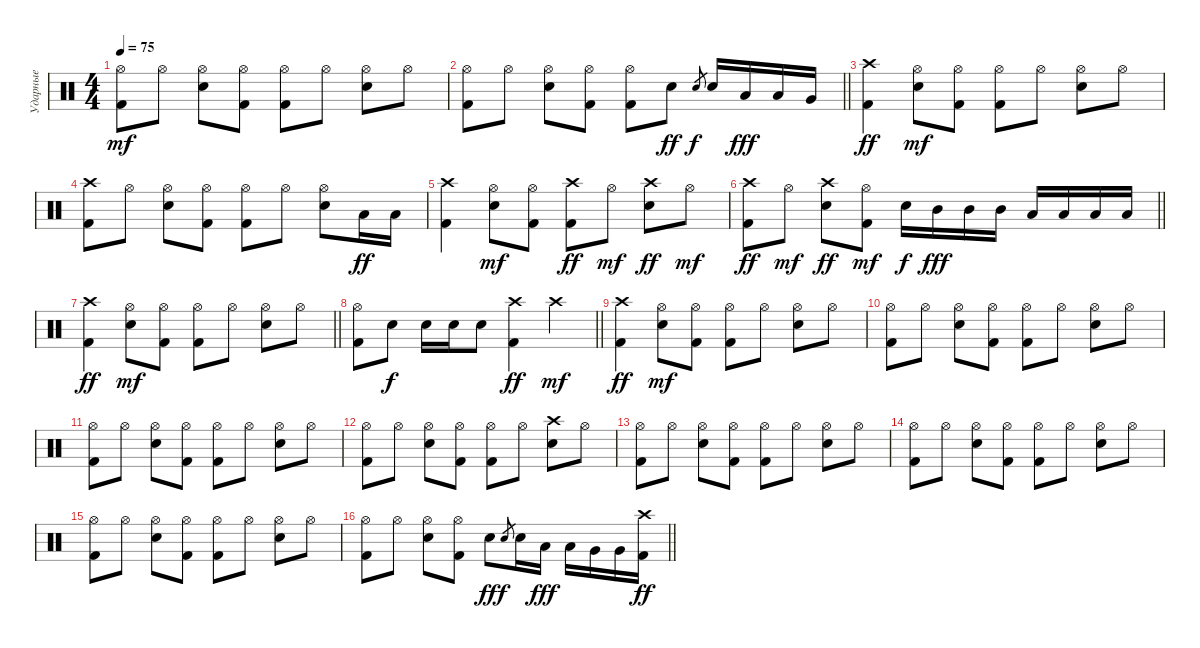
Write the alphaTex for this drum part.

\track ("Ударные" "Ударные") {instrument percussion}
\staff {score}
\articulation defaults
\ts (4 4)
\tempo 75
\clef neutral
\ks c
("Kick (hit) 2" "Hi-Hat (open)").8{dy mf} "Hi-Hat (open)".8 ("Snare (hit) 2" "Hi-Hat (open)").8 ("Kick (hit) 2" "Hi-Hat (open)").8 ("Kick (hit) 2" "Hi-Hat (open)").8 "Hi-Hat (open)".8 ("Snare (hit) 2" "Hi-Hat (open)").8 "Hi-Hat (open)".8 |
\barLineRight lightlight
("Kick (hit) 2" "Hi-Hat (open)").8 "Hi-Hat (open)".8 ("Snare (hit) 2" "Hi-Hat (open)").8 ("Kick (hit) 2" "Hi-Hat (open)").8 ("Kick (hit) 2" "Hi-Hat (open)").8 "Snare (hit) 2".8{dy ff} "Electric Snare (hit)".8{gr dy f} "Electric Snare (hit)".16 "Low Tom (hit)".16{dy fff} "Low Tom (hit)".16 "Very Low Tom (hit)".16 |
("Kick (hit) 2" "Crash high (hit)").4{dy ff} ("Snare (hit) 2" "Hi-Hat (open)").8{dy mf} ("Kick (hit) 2" "Hi-Hat (open)").8 ("Kick (hit) 2" "Hi-Hat (open)").8 "Hi-Hat (open)".8 ("Snare (hit) 2" "Hi-Hat (open)").8 "Hi-Hat (open)".8 |
("Kick (hit) 2" "Crash high (hit)").8 "Hi-Hat (open)".8 ("Snare (hit) 2" "Hi-Hat (open)").8 ("Kick (hit) 2" "Hi-Hat (open)").8 ("Kick (hit) 2" "Hi-Hat (open)").8 "Hi-Hat (open)".8 ("Snare (hit) 2" "Hi-Hat (open)").8 "Low Tom (hit)".16{dy ff} "Low Tom (hit)".16 |
("Kick (hit) 2" "Crash high (hit)").4 ("Snare (hit) 2" "Hi-Hat (open)").8{dy mf} ("Kick (hit) 2" "Hi-Hat (open)").8 ("Kick (hit) 2" "Crash high (hit)").8{dy ff} "Hi-Hat (open)".8{dy mf} ("Snare (hit) 2" "Crash high (hit)").8{dy ff} "Hi-Hat (open)".8{dy mf} |
\barLineRight lightlight
("Kick (hit) 2" "Crash high (hit)").8{dy ff} "Hi-Hat (open)".8{dy mf} ("Snare (hit) 2" "Crash high (hit)").8{dy ff} ("Kick (hit) 2" "Hi-Hat (open)").8{dy mf} "Snare (hit) 2".16{dy f} "Mid Tom (hit)".16{dy fff} "Mid Tom (hit)".16 "Mid Tom (hit)".16 "Low Tom (hit)".16 "Low Tom (hit)".16 "Low Tom (hit)".16 "Low Tom (hit)".16 |
\barLineRight lightlight
("Kick (hit) 2" "Crash high (hit)").4{dy ff} ("Snare (hit) 2" "Hi-Hat (open)").8{dy mf} ("Kick (hit) 2" "Hi-Hat (open)").8 ("Kick (hit) 2" "Hi-Hat (open)").8 "Hi-Hat (open)".8 ("Snare (hit) 2" "Hi-Hat (open)").8 "Hi-Hat (open)".8 |
\barLineRight lightlight
("Kick (hit) 2" "Hi-Hat (open)").8 "Snare (hit) 2".8{dy f} "Snare (hit) 2".16 "Electric Snare (hit)".16 "Electric Snare (hit)".8 ("Kick (hit) 2" "Crash high (hit)").4{dy ff} "Crash high (hit)".4{dy mf} |
("Kick (hit) 2" "Crash high (hit)").4{dy ff} ("Snare (hit) 2" "Hi-Hat (open)").8{dy mf} ("Kick (hit) 2" "Hi-Hat (open)").8 ("Kick (hit) 2" "Hi-Hat (open)").8 "Hi-Hat (open)".8 ("Snare (hit) 2" "Hi-Hat (open)").8 "Hi-Hat (open)".8 |
("Kick (hit) 2" "Hi-Hat (open)").8 "Hi-Hat (open)".8 ("Snare (hit) 2" "Hi-Hat (open)").8 ("Kick (hit) 2" "Hi-Hat (open)").8 ("Kick (hit) 2" "Hi-Hat (open)").8 "Hi-Hat (open)".8 ("Snare (hit) 2" "Hi-Hat (open)").8 "Hi-Hat (open)".8 |
("Kick (hit) 2" "Hi-Hat (open)").8 "Hi-Hat (open)".8 ("Snare (hit) 2" "Hi-Hat (open)").8 ("Kick (hit) 2" "Hi-Hat (open)").8 ("Kick (hit) 2" "Hi-Hat (open)").8 "Hi-Hat (open)".8 ("Snare (hit) 2" "Hi-Hat (open)").8 "Hi-Hat (open)".8 |
("Kick (hit) 2" "Hi-Hat (open)").8 "Hi-Hat (open)".8 ("Snare (hit) 2" "Hi-Hat (open)").8 ("Kick (hit) 2" "Hi-Hat (open)").8 ("Kick (hit) 2" "Hi-Hat (open)").8 "Hi-Hat (open)".8 ("Snare (hit) 2" "Crash high (hit)").8 "Hi-Hat (open)".8 |
("Kick (hit) 2" "Hi-Hat (open)").8 "Hi-Hat (open)".8 ("Snare (hit) 2" "Hi-Hat (open)").8 ("Kick (hit) 2" "Hi-Hat (open)").8 ("Kick (hit) 2" "Hi-Hat (open)").8 "Hi-Hat (open)".8 ("Snare (hit) 2" "Hi-Hat (open)").8 "Hi-Hat (open)".8 |
("Kick (hit) 2" "Hi-Hat (open)").8 "Hi-Hat (open)".8 ("Snare (hit) 2" "Hi-Hat (open)").8 ("Kick (hit) 2" "Hi-Hat (open)").8 ("Kick (hit) 2" "Hi-Hat (open)").8 "Hi-Hat (open)".8 ("Snare (hit) 2" "Hi-Hat (open)").8 "Hi-Hat (open)".8 |
("Kick (hit) 2" "Hi-Hat (open)").8 "Hi-Hat (open)".8 ("Snare (hit) 2" "Hi-Hat (open)").8 ("Kick (hit) 2" "Hi-Hat (open)").8 ("Kick (hit) 2" "Hi-Hat (open)").8 "Hi-Hat (open)".8 ("Snare (hit) 2" "Hi-Hat (open)").8 "Hi-Hat (open)".8 |
\barLineRight lightlight
("Kick (hit) 2" "Hi-Hat (open)").8 "Hi-Hat (open)".8 ("Snare (hit) 2" "Hi-Hat (open)").8 ("Kick (hit) 2" "Hi-Hat (open)").8 "Snare (hit) 2".8{dy ff} "Electric Snare (hit)".8{gr dy f} "Electric Snare (hit)".16 "Low Tom (hit)".16{dy fff} "Low Tom (hit)".16 "Very Low Tom (hit)".16 "Very Low Tom (hit)".16 ("Kick (hit) 2" "Crash high (hit)").16{dy ff}
